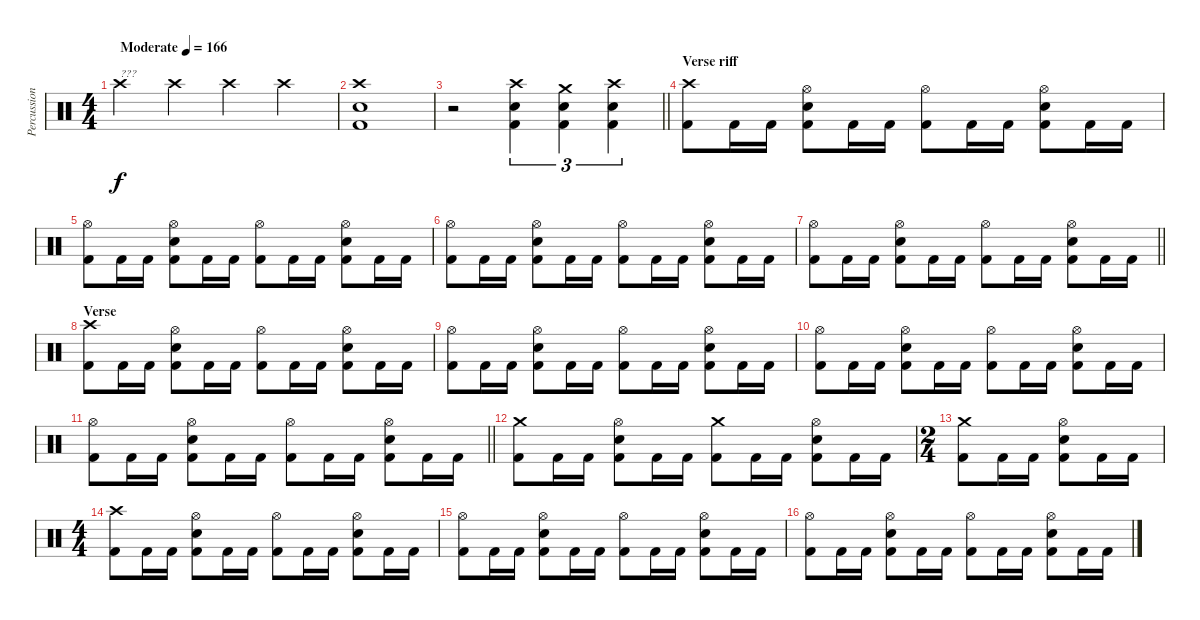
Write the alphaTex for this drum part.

\track ("Percussion" "Percussion") {instrument percussion}
\staff {score}
\articulation defaults
\ts (4 4)
\tempo (166 "Moderate")
\clef neutral
\ks c "Crash high (hit)".4{txt "???" dy f} "Crash high (hit)".4 "Crash high (hit)".4 "Crash high (hit)".4
|
("Crash high (hit)" "Snare (hit) 2" "Kick (hit) 2").1 |
\barLineRight lightlight
r.2 ("Crash high (hit)" "Snare (hit) 2" "Kick (hit) 2").4{tu (3 2)} ("Crash medium (hit)" "Snare (hit) 2" "Kick (hit) 2").4{tu (3 2)} ("Crash high (hit)" "Snare (hit) 2" "Kick (hit) 2").4{tu (3 2)} |
\section ("" "Verse riff")
("Crash high (hit)" "Kick (hit) 2").8 "Kick (hit) 2".16 "Kick (hit) 2".16 ("Hi-Hat (open)" "Snare (hit) 2" "Kick (hit) 2").8 "Kick (hit) 2".16 "Kick (hit) 2".16 ("Hi-Hat (open)" "Kick (hit) 2").8 "Kick (hit) 2".16 "Kick (hit) 2".16 ("Hi-Hat (open)" "Snare (hit) 2" "Kick (hit) 2").8 "Kick (hit) 2".16 "Kick (hit) 2".16 |
("Hi-Hat (open)" "Kick (hit) 2").8 "Kick (hit) 2".16 "Kick (hit) 2".16 ("Hi-Hat (open)" "Snare (hit) 2" "Kick (hit) 2").8 "Kick (hit) 2".16 "Kick (hit) 2".16 ("Hi-Hat (open)" "Kick (hit) 2").8 "Kick (hit) 2".16 "Kick (hit) 2".16 ("Hi-Hat (open)" "Snare (hit) 2" "Kick (hit) 2").8 "Kick (hit) 2".16 "Kick (hit) 2".16 |
("Hi-Hat (open)" "Kick (hit) 2").8 "Kick (hit) 2".16 "Kick (hit) 2".16 ("Hi-Hat (open)" "Snare (hit) 2" "Kick (hit) 2").8 "Kick (hit) 2".16 "Kick (hit) 2".16 ("Hi-Hat (open)" "Kick (hit) 2").8 "Kick (hit) 2".16 "Kick (hit) 2".16 ("Hi-Hat (open)" "Snare (hit) 2" "Kick (hit) 2").8 "Kick (hit) 2".16 "Kick (hit) 2".16 |
\barLineRight lightlight
("Hi-Hat (open)" "Kick (hit) 2").8 "Kick (hit) 2".16 "Kick (hit) 2".16 ("Hi-Hat (open)" "Snare (hit) 2" "Kick (hit) 2").8 "Kick (hit) 2".16 "Kick (hit) 2".16 ("Hi-Hat (open)" "Kick (hit) 2").8 "Kick (hit) 2".16 "Kick (hit) 2".16 ("Hi-Hat (open)" "Snare (hit) 2" "Kick (hit) 2").8 "Kick (hit) 2".16 "Kick (hit) 2".16 |
\section ("" "Verse")
("Crash high (hit)" "Kick (hit) 2").8 "Kick (hit) 2".16 "Kick (hit) 2".16 ("Hi-Hat (open)" "Snare (hit) 2" "Kick (hit) 2").8 "Kick (hit) 2".16 "Kick (hit) 2".16 ("Hi-Hat (open)" "Kick (hit) 2").8 "Kick (hit) 2".16 "Kick (hit) 2".16 ("Hi-Hat (open)" "Snare (hit) 2" "Kick (hit) 2").8 "Kick (hit) 2".16 "Kick (hit) 2".16 |
("Hi-Hat (open)" "Kick (hit) 2").8 "Kick (hit) 2".16 "Kick (hit) 2".16 ("Hi-Hat (open)" "Snare (hit) 2" "Kick (hit) 2").8 "Kick (hit) 2".16 "Kick (hit) 2".16 ("Hi-Hat (open)" "Kick (hit) 2").8 "Kick (hit) 2".16 "Kick (hit) 2".16 ("Hi-Hat (open)" "Snare (hit) 2" "Kick (hit) 2").8 "Kick (hit) 2".16 "Kick (hit) 2".16 |
("Hi-Hat (open)" "Kick (hit) 2").8 "Kick (hit) 2".16 "Kick (hit) 2".16 ("Hi-Hat (open)" "Snare (hit) 2" "Kick (hit) 2").8 "Kick (hit) 2".16 "Kick (hit) 2".16 ("Hi-Hat (open)" "Kick (hit) 2").8 "Kick (hit) 2".16 "Kick (hit) 2".16 ("Hi-Hat (open)" "Snare (hit) 2" "Kick (hit) 2").8 "Kick (hit) 2".16 "Kick (hit) 2".16 |
\barLineRight lightlight
("Hi-Hat (open)" "Kick (hit) 2").8 "Kick (hit) 2".16 "Kick (hit) 2".16 ("Hi-Hat (open)" "Snare (hit) 2" "Kick (hit) 2").8 "Kick (hit) 2".16 "Kick (hit) 2".16 ("Hi-Hat (open)" "Kick (hit) 2").8 "Kick (hit) 2".16 "Kick (hit) 2".16 ("Hi-Hat (open)" "Snare (hit) 2" "Kick (hit) 2").8 "Kick (hit) 2".16 "Kick (hit) 2".16 |
("Crash medium (hit)" "Kick (hit) 2").8 "Kick (hit) 2".16 "Kick (hit) 2".16 ("Hi-Hat (open)" "Snare (hit) 2" "Kick (hit) 2").8 "Kick (hit) 2".16 "Kick (hit) 2".16 ("Crash medium (hit)" "Kick (hit) 2").8 "Kick (hit) 2".16 "Kick (hit) 2".16 ("Hi-Hat (open)" "Snare (hit) 2" "Kick (hit) 2").8 "Kick (hit) 2".16 "Kick (hit) 2".16 |
\ts (2 4)
("Crash medium (hit)" "Kick (hit) 2").8 "Kick (hit) 2".16 "Kick (hit) 2".16 ("Hi-Hat (open)" "Snare (hit) 2" "Kick (hit) 2").8 "Kick (hit) 2".16 "Kick (hit) 2".16 |
\ts (4 4)
("Crash high (hit)" "Kick (hit) 2").8 "Kick (hit) 2".16 "Kick (hit) 2".16 ("Hi-Hat (open)" "Snare (hit) 2" "Kick (hit) 2").8 "Kick (hit) 2".16 "Kick (hit) 2".16 ("Hi-Hat (open)" "Kick (hit) 2").8 "Kick (hit) 2".16 "Kick (hit) 2".16 ("Hi-Hat (open)" "Snare (hit) 2" "Kick (hit) 2").8 "Kick (hit) 2".16 "Kick (hit) 2".16 |
("Hi-Hat (open)" "Kick (hit) 2").8 "Kick (hit) 2".16 "Kick (hit) 2".16 ("Hi-Hat (open)" "Snare (hit) 2" "Kick (hit) 2").8 "Kick (hit) 2".16 "Kick (hit) 2".16 ("Hi-Hat (open)" "Kick (hit) 2").8 "Kick (hit) 2".16 "Kick (hit) 2".16 ("Hi-Hat (open)" "Snare (hit) 2" "Kick (hit) 2").8 "Kick (hit) 2".16 "Kick (hit) 2".16 |
("Hi-Hat (open)" "Kick (hit) 2").8 "Kick (hit) 2".16 "Kick (hit) 2".16 ("Hi-Hat (open)" "Snare (hit) 2" "Kick (hit) 2").8 "Kick (hit) 2".16 "Kick (hit) 2".16 ("Hi-Hat (open)" "Kick (hit) 2").8 "Kick (hit) 2".16 "Kick (hit) 2".16 ("Hi-Hat (open)" "Snare (hit) 2" "Kick (hit) 2").8 "Kick (hit) 2".16 "Kick (hit) 2".16
